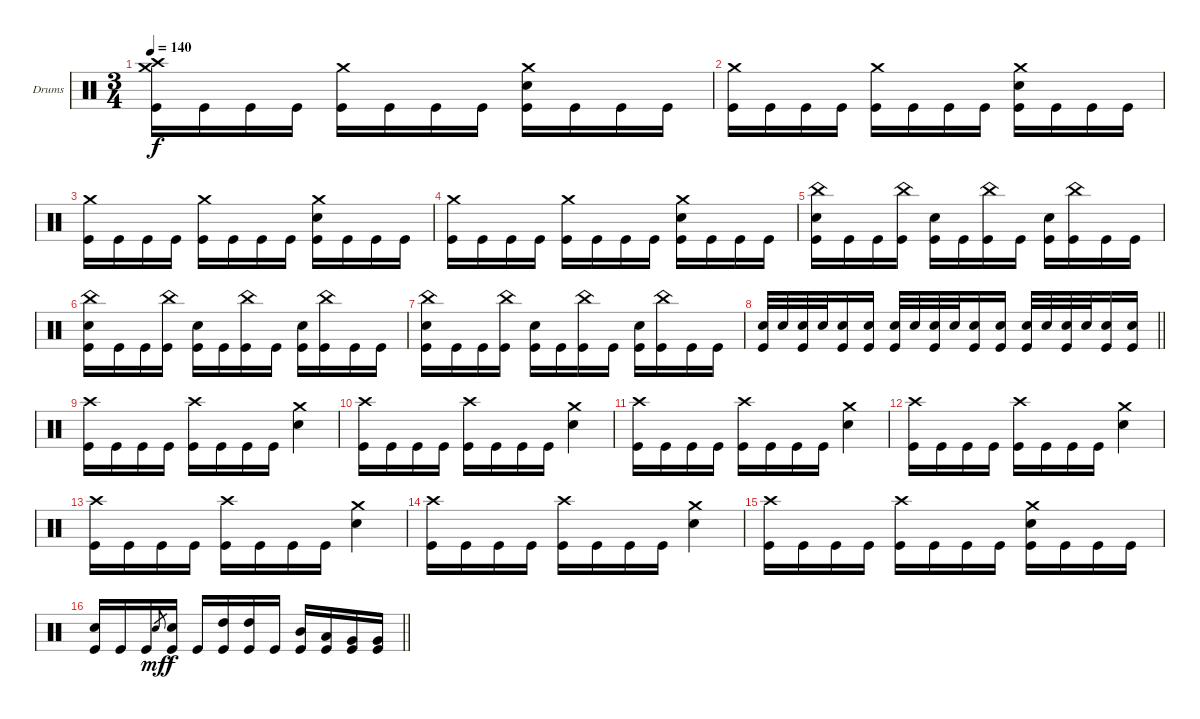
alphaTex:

\bracketExtendMode groupsimilarinstruments
\firstSystemTrackNameOrientation horizontal
\otherSystemsTrackNameOrientation horizontal
\track ("Drumkit" "Drums") {instrument percussion}
\staff {score}
\articulation defaults
\ts (3 4)
\beaming (8 2 2 2 2)
\tempo 140
\clef neutral
\ks c
("Crash high (hit)" "Crash medium (hit)" "Kick (hit)").16{dy f} "Kick (hit)".16 "Kick (hit)".16 "Kick (hit)".16 ("Crash medium (hit)" "Kick (hit)").16 "Kick (hit)".16 "Kick (hit)".16 "Kick (hit)".16 ("Crash medium (hit)" "Snare (hit) 2" "Kick (hit)").16 "Kick (hit)".16 "Kick (hit)".16 "Kick (hit)".16 |
("Crash medium (hit)" "Kick (hit)").16 "Kick (hit)".16 "Kick (hit)".16 "Kick (hit)".16 ("Crash medium (hit)" "Kick (hit)").16 "Kick (hit)".16 "Kick (hit)".16 "Kick (hit)".16 ("Crash medium (hit)" "Snare (hit) 2" "Kick (hit)").16 "Kick (hit)".16 "Kick (hit)".16 "Kick (hit)".16 |
("Crash medium (hit)" "Kick (hit)").16 "Kick (hit)".16 "Kick (hit)".16 "Kick (hit)".16 ("Crash medium (hit)" "Kick (hit)").16 "Kick (hit)".16 "Kick (hit)".16 "Kick (hit)".16 ("Crash medium (hit)" "Snare (hit) 2" "Kick (hit)").16 "Kick (hit)".16 "Kick (hit)".16 "Kick (hit)".16 |
("Crash medium (hit)" "Kick (hit)").16 "Kick (hit)".16 "Kick (hit)".16 "Kick (hit)".16 ("Crash medium (hit)" "Kick (hit)").16 "Kick (hit)".16 "Kick (hit)".16 "Kick (hit)".16 ("Crash medium (hit)" "Snare (hit) 2" "Kick (hit)").16 "Kick (hit)".16 "Kick (hit)".16 "Kick (hit)".16 |
("China (hit)" "Snare (hit) 2" "Kick (hit)").16 "Kick (hit)".16 "Kick (hit)".16 ("China (hit)" "Kick (hit)").16 ("Snare (hit) 2" "Kick (hit)").16 "Kick (hit)".16 ("China (hit)" "Kick (hit)").16 "Kick (hit)".16 ("Snare (hit) 2" "Kick (hit)").16 ("China (hit)" "Kick (hit)").16 "Kick (hit)".16 "Kick (hit)".16 |
("China (hit)" "Snare (hit) 2" "Kick (hit)").16 "Kick (hit)".16 "Kick (hit)".16 ("China (hit)" "Kick (hit)").16 ("Snare (hit) 2" "Kick (hit)").16 "Kick (hit)".16 ("China (hit)" "Kick (hit)").16 "Kick (hit)".16 ("Snare (hit) 2" "Kick (hit)").16 ("China (hit)" "Kick (hit)").16 "Kick (hit)".16 "Kick (hit)".16 |
("China (hit)" "Snare (hit) 2" "Kick (hit)").16 "Kick (hit)".16 "Kick (hit)".16 ("China (hit)" "Kick (hit)").16 ("Snare (hit) 2" "Kick (hit)").16 "Kick (hit)".16 ("China (hit)" "Kick (hit)").16 "Kick (hit)".16 ("Snare (hit) 2" "Kick (hit)").16 ("China (hit)" "Kick (hit)").16 "Kick (hit)".16 "Kick (hit)".16 |
\barLineRight lightlight
("Snare (hit) 2" "Kick (hit)").32 "Snare (hit) 2".32 ("Snare (hit) 2" "Kick (hit)").32 "Snare (hit) 2".32 ("Snare (hit) 2" "Kick (hit)").16 ("Snare (hit) 2" "Kick (hit)").16 ("Snare (hit) 2" "Kick (hit)").32 "Snare (hit) 2".32 ("Snare (hit) 2" "Kick (hit)").32 "Snare (hit) 2".32 ("Snare (hit) 2" "Kick (hit)").16 ("Snare (hit) 2" "Kick (hit)").16 ("Snare (hit) 2" "Kick (hit)").32 "Snare (hit) 2".32 ("Snare (hit) 2" "Kick (hit)").32 "Snare (hit) 2".32 ("Snare (hit) 2" "Kick (hit)").16 ("Snare (hit) 2" "Kick (hit)").16 |
("Crash high (hit)" "Kick (hit)").16 "Kick (hit)".16 "Kick (hit)".16 "Kick (hit)".16 ("Crash high (hit)" "Kick (hit)").16 "Kick (hit)".16 "Kick (hit)".16 "Kick (hit)".16 ("Crash medium (hit)" "Snare (hit) 2").4 |
("Crash high (hit)" "Kick (hit)").16 "Kick (hit)".16 "Kick (hit)".16 "Kick (hit)".16 ("Crash high (hit)" "Kick (hit)").16 "Kick (hit)".16 "Kick (hit)".16 "Kick (hit)".16 ("Crash medium (hit)" "Snare (hit) 2").4 |
("Crash high (hit)" "Kick (hit)").16 "Kick (hit)".16 "Kick (hit)".16 "Kick (hit)".16 ("Crash high (hit)" "Kick (hit)").16 "Kick (hit)".16 "Kick (hit)".16 "Kick (hit)".16 ("Crash medium (hit)" "Snare (hit) 2").4 |
("Crash high (hit)" "Kick (hit)").16 "Kick (hit)".16 "Kick (hit)".16 "Kick (hit)".16 ("Crash high (hit)" "Kick (hit)").16 "Kick (hit)".16 "Kick (hit)".16 "Kick (hit)".16 ("Crash medium (hit)" "Snare (hit) 2").4 |
("Crash high (hit)" "Kick (hit)").16 "Kick (hit)".16 "Kick (hit)".16 "Kick (hit)".16 ("Crash high (hit)" "Kick (hit)").16 "Kick (hit)".16 "Kick (hit)".16 "Kick (hit)".16 ("Crash medium (hit)" "Snare (hit) 2").4 |
("Crash high (hit)" "Kick (hit)").16 "Kick (hit)".16 "Kick (hit)".16 "Kick (hit)".16 ("Crash high (hit)" "Kick (hit)").16 "Kick (hit)".16 "Kick (hit)".16 "Kick (hit)".16 ("Crash medium (hit)" "Snare (hit) 2").4 |
("Crash high (hit)" "Kick (hit)").16 "Kick (hit)".16 "Kick (hit)".16 "Kick (hit)".16 ("Crash high (hit)" "Kick (hit)").16 "Kick (hit)".16 "Kick (hit)".16 "Kick (hit)".16 ("Crash medium (hit)" "Snare (hit) 2" "Kick (hit)").16 "Kick (hit)".16 "Kick (hit)".16 "Kick (hit)".16 |
\barLineRight lightlight
("Snare (hit) 2" "Kick (hit)").16 "Kick (hit)".16 "Kick (hit)".16 "Snare (hit) 2".8{gr dy mf} ("Snare (hit) 2" "Kick (hit)").16{dy f} "Kick (hit)".16 ("High Tom (hit)" "Kick (hit)").16 ("High Tom (hit)" "Kick (hit)").16 "Kick (hit)".16 ("Mid Tom (hit)" "Kick (hit)").16 ("Low Tom (hit)" "Kick (hit)").16 ("Very Low Tom (hit)" "Kick (hit)").16 ("Very Low Tom (hit)" "Kick (hit)").16
